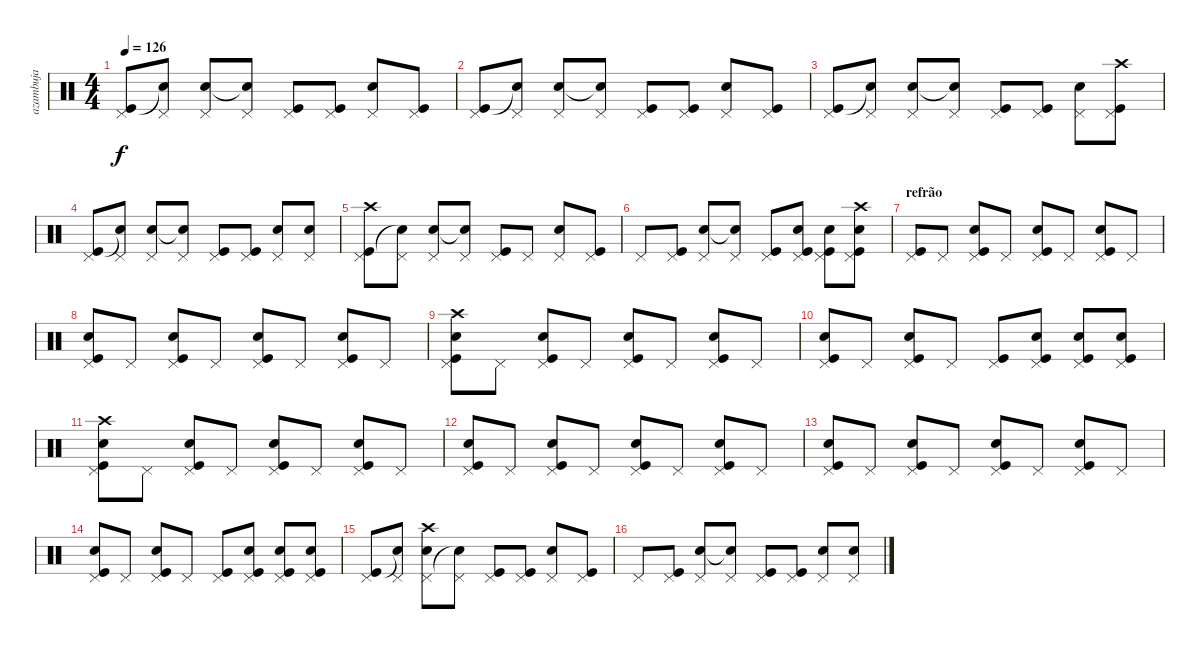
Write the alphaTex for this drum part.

\track ("azambuja" "azambuja") {instrument percussion}
\staff {score}
\articulation defaults
\ts (4 4)
\tempo 126
\clef neutral
\ks c
("Pedal Hi-Hat (hit)" "Kick (hit)").8{dy f} ("Pedal Hi-Hat (hit)" "Snare (hit)"{t}).8 ("Pedal Hi-Hat (hit)" "Snare (hit) 2").8 ("Pedal Hi-Hat (hit)" "Snare (hit) 2"{t}).8 ("Pedal Hi-Hat (hit)" "Kick (hit)").8 ("Pedal Hi-Hat (hit)" "Kick (hit)").8 ("Pedal Hi-Hat (hit)" "Snare (hit) 2").8 ("Pedal Hi-Hat (hit)" "Kick (hit)").8 |
("Pedal Hi-Hat (hit)" "Kick (hit)").8 ("Pedal Hi-Hat (hit)" "Snare (hit)"{t}).8 ("Pedal Hi-Hat (hit)" "Snare (hit) 2").8 ("Pedal Hi-Hat (hit)" "Snare (hit) 2"{t}).8 ("Pedal Hi-Hat (hit)" "Kick (hit)").8 ("Pedal Hi-Hat (hit)" "Kick (hit)").8 ("Pedal Hi-Hat (hit)" "Snare (hit) 2").8 ("Pedal Hi-Hat (hit)" "Kick (hit)").8 |
("Pedal Hi-Hat (hit)" "Kick (hit)").8 ("Pedal Hi-Hat (hit)" "Snare (hit)"{t}).8 ("Pedal Hi-Hat (hit)" "Snare (hit) 2").8 ("Pedal Hi-Hat (hit)" "Snare (hit) 2"{t}).8 ("Pedal Hi-Hat (hit)" "Kick (hit)").8 ("Pedal Hi-Hat (hit)" "Kick (hit)").8 ("Pedal Hi-Hat (hit)" "Snare (hit) 2").8 ("Crash high (hit)" "Pedal Hi-Hat (hit)" "Kick (hit)").8 |
("Pedal Hi-Hat (hit)" "Kick (hit)").8 ("Pedal Hi-Hat (hit)" "Snare (hit)"{t}).8 ("Pedal Hi-Hat (hit)" "Snare (hit) 2").8 ("Pedal Hi-Hat (hit)" "Snare (hit) 2"{t}).8 ("Pedal Hi-Hat (hit)" "Kick (hit)").8 ("Pedal Hi-Hat (hit)" "Kick (hit)").8 ("Pedal Hi-Hat (hit)" "Snare (hit) 2").8 ("Pedal Hi-Hat (hit)" "Snare (hit) 2").8 |
("Crash high (hit)" "Pedal Hi-Hat (hit)" "Kick (hit)").8 ("Pedal Hi-Hat (hit)" "Snare (hit)"{t}).8 ("Pedal Hi-Hat (hit)" "Snare (hit) 2").8 ("Pedal Hi-Hat (hit)" "Snare (hit) 2"{t}).8 ("Pedal Hi-Hat (hit)" "Kick (hit)").8 "Pedal Hi-Hat (hit)".8 ("Pedal Hi-Hat (hit)" "Snare (hit) 2").8 ("Pedal Hi-Hat (hit)" "Kick (hit)").8 |
"Pedal Hi-Hat (hit)".8 ("Pedal Hi-Hat (hit)" "Kick (hit)").8 ("Pedal Hi-Hat (hit)" "Snare (hit) 2").8 ("Pedal Hi-Hat (hit)" "Snare (hit) 2"{t}).8 ("Pedal Hi-Hat (hit)" "Kick (hit)").8 ("Pedal Hi-Hat (hit)" "Snare (hit) 2" "Kick (hit)").8 ("Pedal Hi-Hat (hit)" "Snare (hit) 2" "Kick (hit)").8 ("Crash high (hit)" "Pedal Hi-Hat (hit)" "Snare (hit) 2" "Kick (hit)").8 |
\section ("" "refrão")
("Pedal Hi-Hat (hit)" "Kick (hit)").8 "Pedal Hi-Hat (hit)".8 ("Pedal Hi-Hat (hit)" "Snare (hit) 2" "Kick (hit)").8 "Pedal Hi-Hat (hit)".8 ("Pedal Hi-Hat (hit)" "Snare (hit) 2" "Kick (hit)").8 "Pedal Hi-Hat (hit)".8 ("Pedal Hi-Hat (hit)" "Snare (hit) 2" "Kick (hit)").8 "Pedal Hi-Hat (hit)".8 |
("Pedal Hi-Hat (hit)" "Snare (hit) 2" "Kick (hit)").8 "Pedal Hi-Hat (hit)".8 ("Pedal Hi-Hat (hit)" "Snare (hit) 2" "Kick (hit)").8 "Pedal Hi-Hat (hit)".8 ("Pedal Hi-Hat (hit)" "Snare (hit) 2" "Kick (hit)").8 "Pedal Hi-Hat (hit)".8 ("Pedal Hi-Hat (hit)" "Snare (hit) 2" "Kick (hit)").8 "Pedal Hi-Hat (hit)".8 |
("Crash high (hit)" "Pedal Hi-Hat (hit)" "Snare (hit) 2" "Kick (hit)").8 "Pedal Hi-Hat (hit)".8 ("Pedal Hi-Hat (hit)" "Snare (hit) 2" "Kick (hit)").8 "Pedal Hi-Hat (hit)".8 ("Pedal Hi-Hat (hit)" "Snare (hit) 2" "Kick (hit)").8 "Pedal Hi-Hat (hit)".8 ("Pedal Hi-Hat (hit)" "Snare (hit) 2" "Kick (hit)").8 "Pedal Hi-Hat (hit)".8 |
("Pedal Hi-Hat (hit)" "Snare (hit) 2" "Kick (hit)").8 "Pedal Hi-Hat (hit)".8 ("Pedal Hi-Hat (hit)" "Snare (hit) 2" "Kick (hit)").8 "Pedal Hi-Hat (hit)".8 ("Pedal Hi-Hat (hit)" "Kick (hit)").8 ("Pedal Hi-Hat (hit)" "Snare (hit) 2" "Kick (hit)").8 ("Pedal Hi-Hat (hit)" "Snare (hit) 2" "Kick (hit)").8 ("Pedal Hi-Hat (hit)" "Snare (hit) 2" "Kick (hit)").8 |
("Crash high (hit)" "Pedal Hi-Hat (hit)" "Snare (hit) 2" "Kick (hit)").8 "Pedal Hi-Hat (hit)".8 ("Pedal Hi-Hat (hit)" "Snare (hit) 2" "Kick (hit)").8 "Pedal Hi-Hat (hit)".8 ("Pedal Hi-Hat (hit)" "Snare (hit) 2" "Kick (hit)").8 "Pedal Hi-Hat (hit)".8 ("Pedal Hi-Hat (hit)" "Snare (hit) 2" "Kick (hit)").8 "Pedal Hi-Hat (hit)".8 |
("Pedal Hi-Hat (hit)" "Snare (hit) 2" "Kick (hit)").8 "Pedal Hi-Hat (hit)".8 ("Pedal Hi-Hat (hit)" "Snare (hit) 2" "Kick (hit)").8 "Pedal Hi-Hat (hit)".8 ("Pedal Hi-Hat (hit)" "Snare (hit) 2" "Kick (hit)").8 "Pedal Hi-Hat (hit)".8 ("Pedal Hi-Hat (hit)" "Snare (hit) 2" "Kick (hit)").8 "Pedal Hi-Hat (hit)".8 |
("Pedal Hi-Hat (hit)" "Snare (hit) 2" "Kick (hit)").8 "Pedal Hi-Hat (hit)".8 ("Pedal Hi-Hat (hit)" "Snare (hit) 2" "Kick (hit)").8 "Pedal Hi-Hat (hit)".8 ("Pedal Hi-Hat (hit)" "Snare (hit) 2" "Kick (hit)").8 "Pedal Hi-Hat (hit)".8 ("Pedal Hi-Hat (hit)" "Snare (hit) 2" "Kick (hit)").8 "Pedal Hi-Hat (hit)".8 |
("Pedal Hi-Hat (hit)" "Snare (hit) 2" "Kick (hit)").8 "Pedal Hi-Hat (hit)".8 ("Pedal Hi-Hat (hit)" "Snare (hit) 2" "Kick (hit)").8 "Pedal Hi-Hat (hit)".8 ("Pedal Hi-Hat (hit)" "Kick (hit)").8 ("Pedal Hi-Hat (hit)" "Snare (hit) 2" "Kick (hit)").8 ("Pedal Hi-Hat (hit)" "Snare (hit) 2" "Kick (hit)").8 ("Pedal Hi-Hat (hit)" "Snare (hit) 2" "Kick (hit)").8 |
("Pedal Hi-Hat (hit)" "Kick (hit)").8 ("Pedal Hi-Hat (hit)" "Snare (hit)"{t}).8 ("Crash high (hit)" "Pedal Hi-Hat (hit)" "Snare (hit) 2").8 ("Pedal Hi-Hat (hit)" "Snare (hit) 2"{t}).8 ("Pedal Hi-Hat (hit)" "Kick (hit)").8 ("Pedal Hi-Hat (hit)" "Kick (hit)").8 ("Pedal Hi-Hat (hit)" "Snare (hit) 2").8 ("Pedal Hi-Hat (hit)" "Kick (hit)").8 |
"Pedal Hi-Hat (hit)".8 ("Pedal Hi-Hat (hit)" "Kick (hit)").8 ("Pedal Hi-Hat (hit)" "Snare (hit) 2").8 ("Pedal Hi-Hat (hit)" "Snare (hit) 2"{t}).8 ("Pedal Hi-Hat (hit)" "Kick (hit)").8 ("Pedal Hi-Hat (hit)" "Kick (hit)").8 ("Pedal Hi-Hat (hit)" "Snare (hit) 2").8 ("Pedal Hi-Hat (hit)" "Snare (hit) 2").8
